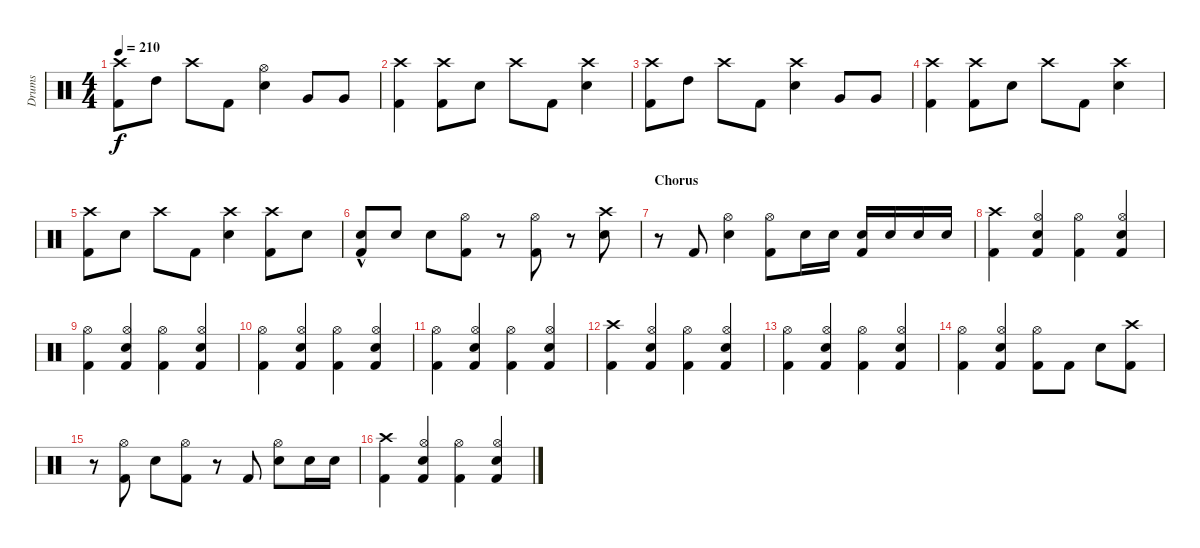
\track ("Drums" "Drums") {instrument percussion}
\staff {score}
\articulation defaults
\ts (4 4)
\tempo 210
\clef neutral
\ks c
("Crash high (hit)" "Kick (hit) 2").8{dy f} "High Tom (hit)".8 "Crash high (hit)".8 "Kick (hit) 2".8 ("Hi-Hat (open)" "Snare (hit) 2").4 "Very Low Tom (hit)".8 "Very Low Tom (hit)".8 |
("Crash high (hit)" "Kick (hit) 2").4 ("Crash high (hit)" "Kick (hit) 2").8 "Snare (hit) 2".8 "Crash high (hit)".8 "Kick (hit) 2".8 ("Crash high (hit)" "Snare (hit) 2").4 |
("Crash high (hit)" "Kick (hit) 2").8 "High Tom (hit)".8 "Crash high (hit)".8 "Kick (hit) 2".8 ("Crash high (hit)" "Snare (hit) 2").4 "Very Low Tom (hit)".8 "Very Low Tom (hit)".8 |
("Crash high (hit)" "Kick (hit) 2").4 ("Crash high (hit)" "Kick (hit) 2").8 "Snare (hit) 2".8 "Crash high (hit)".8 "Kick (hit) 2".8 ("Crash high (hit)" "Snare (hit) 2").4 |
("Crash high (hit)" "Kick (hit) 2").8 "Snare (hit) 2".8 "Crash high (hit)".8 "Kick (hit) 2".8 ("Crash high (hit)" "Snare (hit) 2").4 ("Crash high (hit)" "Kick (hit) 2").8 "Snare (hit) 2".8 |
("Snare (hit) 2"{hac} "Kick (hit) 2").8 "Snare (hit) 2".8 "Snare (hit) 2".8 ("Hi-Hat (open)" "Kick (hit) 2").8 r.8 ("Hi-Hat (open)" "Kick (hit) 2").8 r.8 ("Crash high (hit)" "Snare (hit) 2").8 |
\section ("" "Chorus")
r.8 "Kick (hit) 2".8 ("Hi-Hat (open)" "Snare (hit) 2").4 ("Hi-Hat (open)" "Kick (hit) 2").8 "Snare (hit) 2".16 "Snare (hit) 2".16 ("Snare (hit) 2" "Kick (hit) 2").16 "Snare (hit) 2".16 "Snare (hit) 2".16 "Snare (hit) 2".16 |
("Crash high (hit)" "Kick (hit) 2").4 ("Hi-Hat (open)" "Snare (hit) 2" "Kick (hit) 2").4 ("Hi-Hat (open)" "Kick (hit) 2").4 ("Hi-Hat (open)" "Snare (hit) 2" "Kick (hit) 2").4 |
("Hi-Hat (open)" "Kick (hit) 2").4 ("Hi-Hat (open)" "Snare (hit) 2" "Kick (hit) 2").4 ("Hi-Hat (open)" "Kick (hit) 2").4 ("Hi-Hat (open)" "Snare (hit) 2" "Kick (hit) 2").4 |
("Hi-Hat (open)" "Kick (hit) 2").4 ("Hi-Hat (open)" "Snare (hit) 2" "Kick (hit) 2").4 ("Hi-Hat (open)" "Kick (hit) 2").4 ("Hi-Hat (open)" "Snare (hit) 2" "Kick (hit) 2").4 |
("Hi-Hat (open)" "Kick (hit) 2").4 ("Hi-Hat (open)" "Snare (hit) 2" "Kick (hit) 2").4 ("Hi-Hat (open)" "Kick (hit) 2").4 ("Hi-Hat (open)" "Snare (hit) 2" "Kick (hit) 2").4 |
("Crash high (hit)" "Kick (hit) 2").4 ("Hi-Hat (open)" "Snare (hit) 2" "Kick (hit) 2").4 ("Hi-Hat (open)" "Kick (hit) 2").4 ("Hi-Hat (open)" "Snare (hit) 2" "Kick (hit) 2").4 |
("Hi-Hat (open)" "Kick (hit) 2").4 ("Hi-Hat (open)" "Snare (hit) 2" "Kick (hit) 2").4 ("Hi-Hat (open)" "Kick (hit) 2").4 ("Hi-Hat (open)" "Snare (hit) 2" "Kick (hit) 2").4 |
("Hi-Hat (open)" "Kick (hit) 2").4 ("Hi-Hat (open)" "Snare (hit) 2" "Kick (hit) 2").4 ("Hi-Hat (open)" "Kick (hit) 2").8 "Kick (hit) 2".8 "Snare (hit) 2".8 ("Crash high (hit)" "Kick (hit) 2").8 |
r.8 ("Hi-Hat (open)" "Kick (hit) 2").8 "Snare (hit) 2".8 ("Hi-Hat (open)" "Kick (hit) 2").8 r.8 "Kick (hit) 2".8 ("Hi-Hat (open)" "Snare (hit) 2").8 "Snare (hit) 2".16 "Snare (hit) 2".16 |
("Crash high (hit)" "Kick (hit) 2").4 ("Hi-Hat (open)" "Snare (hit) 2" "Kick (hit) 2").4 ("Hi-Hat (open)" "Kick (hit) 2").4 ("Hi-Hat (open)" "Snare (hit) 2" "Kick (hit) 2").4
